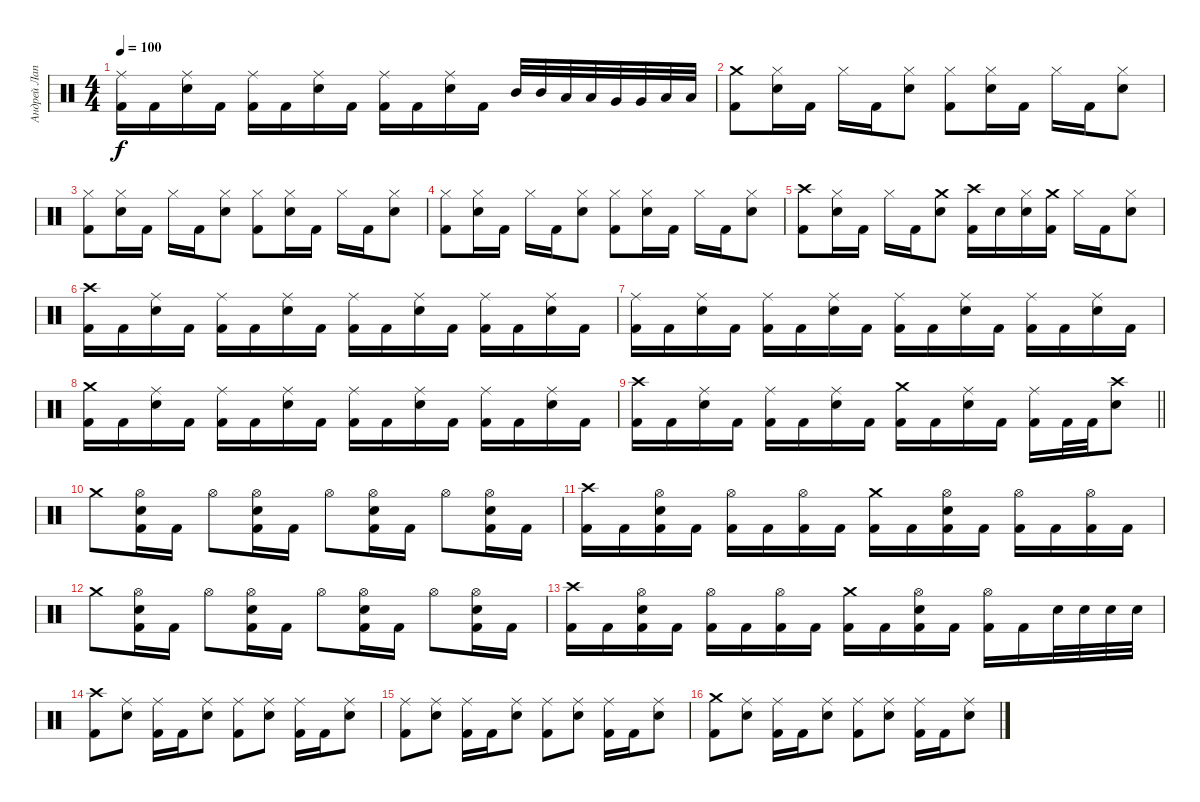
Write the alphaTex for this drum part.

\track ("Андрей Лаптев" "Андрей Лап") {instrument percussion}
\staff {score}
\articulation defaults
\ts (4 4)
\tempo 100
\clef neutral
\ks c
("Ride (middle)" "Kick (hit) 2").16{dy f} "Kick (hit) 2".16 ("Ride (middle)" "Snare (hit) 2").16 "Kick (hit) 2".16 ("Ride (middle)" "Kick (hit) 2").16 "Kick (hit) 2".16 ("Ride (middle)" "Snare (hit) 2").16 "Kick (hit) 2".16 ("Ride (middle)" "Kick (hit) 2").16 "Kick (hit) 2".16 ("Ride (middle)" "Snare (hit) 2").16 "Kick (hit) 2".16 "Mid Tom (hit)".32 "Mid Tom (hit)".32 "Low Tom (hit)".32 "Low Tom (hit)".32 "Very Low Tom (hit)".32 "Very Low Tom (hit)".32 "Low Floor Tom (hit)".32 "Low Floor Tom (hit)".32 |
("Crash medium (hit)" "Kick (hit) 2").8 ("Hi-Hat (closed)" "Snare (hit) 2").16 "Kick (hit) 2".16 "Hi-Hat (closed)".16 "Kick (hit) 2".16 ("Hi-Hat (closed)" "Snare (hit) 2").8 ("Hi-Hat (closed)" "Kick (hit) 2").8 ("Hi-Hat (closed)" "Snare (hit) 2").16 "Kick (hit) 2".16 "Hi-Hat (closed)".16 "Kick (hit) 2".16 ("Hi-Hat (closed)" "Snare (hit) 2").8 |
("Hi-Hat (closed)" "Kick (hit) 2").8 ("Hi-Hat (closed)" "Snare (hit) 2").16 "Kick (hit) 2".16 "Hi-Hat (closed)".16 "Kick (hit) 2".16 ("Hi-Hat (closed)" "Snare (hit) 2").8 ("Hi-Hat (closed)" "Kick (hit) 2").8 ("Hi-Hat (closed)" "Snare (hit) 2").16 "Kick (hit) 2".16 "Hi-Hat (closed)".16 "Kick (hit) 2".16 ("Hi-Hat (closed)" "Snare (hit) 2").8 |
("Hi-Hat (closed)" "Kick (hit) 2").8 ("Hi-Hat (closed)" "Snare (hit) 2").16 "Kick (hit) 2".16 "Hi-Hat (closed)".16 "Kick (hit) 2".16 ("Hi-Hat (closed)" "Snare (hit) 2").8 ("Hi-Hat (closed)" "Kick (hit) 2").8 ("Hi-Hat (closed)" "Snare (hit) 2").16 "Kick (hit) 2".16 "Hi-Hat (closed)".16 "Kick (hit) 2".16 ("Hi-Hat (closed)" "Snare (hit) 2").8 |
("Crash high (hit)" "Kick (hit) 2").8 ("Hi-Hat (closed)" "Snare (hit) 2").16 "Kick (hit) 2".16 "Hi-Hat (closed)".16 "Kick (hit) 2".16 ("Crash medium (hit)" "Snare (hit) 2").8 ("Crash high (hit)" "Kick (hit) 2").16 "Snare (hit) 2".16 ("Hi-Hat (closed)" "Snare (hit) 2").16 ("Crash medium (hit)" "Kick (hit) 2").16 "Hi-Hat (closed)".16 "Kick (hit) 2".16 ("Hi-Hat (closed)" "Snare (hit) 2").8 |
("Crash high (hit)" "Kick (hit) 2").16 "Kick (hit) 2".16 ("Ride (middle)" "Snare (hit) 2").16 "Kick (hit) 2".16 ("Ride (middle)" "Kick (hit) 2").16 "Kick (hit) 2".16 ("Ride (middle)" "Snare (hit) 2").16 "Kick (hit) 2".16 ("Ride (middle)" "Kick (hit) 2").16 "Kick (hit) 2".16 ("Ride (middle)" "Snare (hit) 2").16 "Kick (hit) 2".16 ("Ride (middle)" "Kick (hit) 2").16 "Kick (hit) 2".16 ("Ride (middle)" "Snare (hit) 2").16 "Kick (hit) 2".16 |
("Ride (middle)" "Kick (hit) 2").16 "Kick (hit) 2".16 ("Ride (middle)" "Snare (hit) 2").16 "Kick (hit) 2".16 ("Ride (middle)" "Kick (hit) 2").16 "Kick (hit) 2".16 ("Ride (middle)" "Snare (hit) 2").16 "Kick (hit) 2".16 ("Ride (middle)" "Kick (hit) 2").16 "Kick (hit) 2".16 ("Ride (middle)" "Snare (hit) 2").16 "Kick (hit) 2".16 ("Ride (middle)" "Kick (hit) 2").16 "Kick (hit) 2".16 ("Ride (middle)" "Snare (hit) 2").16 "Kick (hit) 2".16 |
("Crash medium (hit)" "Kick (hit) 2").16 "Kick (hit) 2".16 ("Ride (middle)" "Snare (hit) 2").16 "Kick (hit) 2".16 ("Ride (middle)" "Kick (hit) 2").16 "Kick (hit) 2".16 ("Ride (middle)" "Snare (hit) 2").16 "Kick (hit) 2".16 ("Ride (middle)" "Kick (hit) 2").16 "Kick (hit) 2".16 ("Ride (middle)" "Snare (hit) 2").16 "Kick (hit) 2".16 ("Ride (middle)" "Kick (hit) 2").16 "Kick (hit) 2".16 ("Ride (middle)" "Snare (hit) 2").16 "Kick (hit) 2".16 |
\barLineRight lightlight
("Crash high (hit)" "Kick (hit) 2").16 "Kick (hit) 2".16 ("Ride (middle)" "Snare (hit) 2").16 "Kick (hit) 2".16 ("Ride (middle)" "Kick (hit) 2").16 "Kick (hit) 2".16 ("Ride (middle)" "Snare (hit) 2").16 "Kick (hit) 2".16 ("Crash medium (hit)" "Kick (hit) 2").16 "Kick (hit) 2".16 ("Ride (middle)" "Snare (hit) 2").16 "Kick (hit) 2".16 ("Ride (middle)" "Kick (hit) 2").16 "Kick (hit) 2".32 "Kick (hit) 2".32 ("Crash high (hit)" "Snare (hit) 2").8 |
"Crash medium (hit)".8 ("Hi-Hat (open)" "Snare (hit) 2" "Kick (hit) 2").16 "Kick (hit) 2".16 "Hi-Hat (open)".8 ("Hi-Hat (open)" "Snare (hit) 2" "Kick (hit) 2").16 "Kick (hit) 2".16 "Hi-Hat (open)".8 ("Hi-Hat (open)" "Snare (hit) 2" "Kick (hit) 2").16 "Kick (hit) 2".16 "Hi-Hat (open)".8 ("Hi-Hat (open)" "Snare (hit) 2" "Kick (hit) 2").16 "Kick (hit) 2".16 |
("Crash high (hit)" "Kick (hit) 2").16 "Kick (hit) 2".16 ("Hi-Hat (open)" "Snare (hit) 2" "Kick (hit) 2").16 "Kick (hit) 2".16 ("Hi-Hat (open)" "Kick (hit) 2").16 "Kick (hit) 2".16 ("Hi-Hat (open)" "Kick (hit) 2").16 "Kick (hit) 2".16 ("Crash medium (hit)" "Kick (hit) 2").16 "Kick (hit) 2".16 ("Hi-Hat (open)" "Snare (hit) 2" "Kick (hit) 2").16 "Kick (hit) 2".16 ("Hi-Hat (open)" "Kick (hit) 2").16 "Kick (hit) 2".16 ("Hi-Hat (open)" "Kick (hit) 2").16 "Kick (hit) 2".16 |
"Crash medium (hit)".8 ("Hi-Hat (open)" "Snare (hit) 2" "Kick (hit) 2").16 "Kick (hit) 2".16 "Hi-Hat (open)".8 ("Hi-Hat (open)" "Snare (hit) 2" "Kick (hit) 2").16 "Kick (hit) 2".16 "Hi-Hat (open)".8 ("Hi-Hat (open)" "Snare (hit) 2" "Kick (hit) 2").16 "Kick (hit) 2".16 "Hi-Hat (open)".8 ("Hi-Hat (open)" "Snare (hit) 2" "Kick (hit) 2").16 "Kick (hit) 2".16 |
("Crash high (hit)" "Kick (hit) 2").16 "Kick (hit) 2".16 ("Hi-Hat (open)" "Snare (hit) 2" "Kick (hit) 2").16 "Kick (hit) 2".16 ("Hi-Hat (open)" "Kick (hit) 2").16 "Kick (hit) 2".16 ("Hi-Hat (open)" "Kick (hit) 2").16 "Kick (hit) 2".16 ("Crash medium (hit)" "Kick (hit) 2").16 "Kick (hit) 2".16 ("Hi-Hat (open)" "Snare (hit) 2" "Kick (hit) 2").16 "Kick (hit) 2".16 ("Hi-Hat (open)" "Kick (hit) 2").16 "Kick (hit) 2".16 "Snare (hit) 2".32 "Snare (hit) 2".32 "Snare (hit) 2".32 "Snare (hit) 2".32 |
("Crash high (hit)" "Kick (hit) 2").8 ("Ride (middle)" "Snare (hit) 2").8 ("Ride (middle)" "Kick (hit) 2").16 "Kick (hit) 2".16 ("Ride (middle)" "Snare (hit) 2").8 ("Ride (middle)" "Kick (hit) 2").8 ("Ride (middle)" "Snare (hit) 2").8 ("Ride (middle)" "Kick (hit) 2").16 "Kick (hit) 2".16 ("Ride (middle)" "Snare (hit) 2").8 |
("Ride (middle)" "Kick (hit) 2").8 ("Ride (middle)" "Snare (hit) 2").8 ("Ride (middle)" "Kick (hit) 2").16 "Kick (hit) 2".16 ("Ride (middle)" "Snare (hit) 2").8 ("Ride (middle)" "Kick (hit) 2").8 ("Ride (middle)" "Snare (hit) 2").8 ("Ride (middle)" "Kick (hit) 2").16 "Kick (hit) 2".16 ("Ride (middle)" "Snare (hit) 2").8 |
("Crash medium (hit)" "Kick (hit) 2").8 ("Ride (middle)" "Snare (hit) 2").8 ("Ride (middle)" "Kick (hit) 2").16 "Kick (hit) 2".16 ("Ride (middle)" "Snare (hit) 2").8 ("Ride (middle)" "Kick (hit) 2").8 ("Ride (middle)" "Snare (hit) 2").8 ("Ride (middle)" "Kick (hit) 2").16 "Kick (hit) 2".16 ("Ride (middle)" "Snare (hit) 2").8
